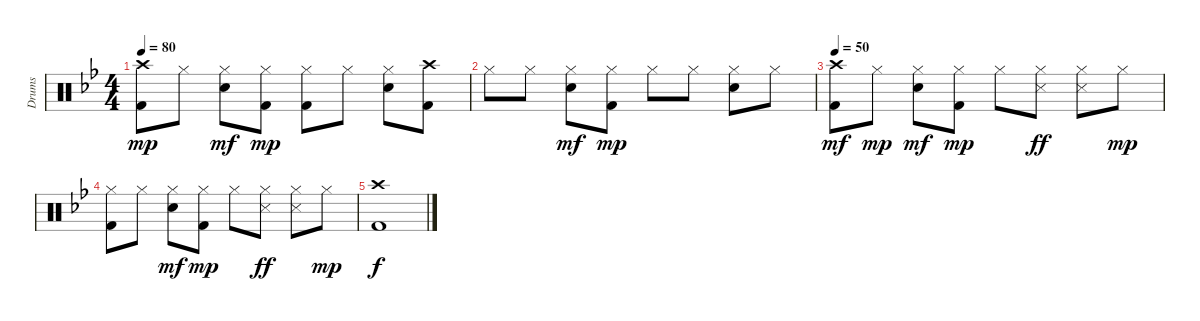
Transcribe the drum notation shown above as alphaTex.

\track ("Drums" "Drums") {instrument percussion}
\staff {score}
\articulation defaults
\ts (4 4)
\tempo 80
\clef neutral
\ks bb
("Crash high (hit)" "Kick (hit) 2").8{dy mp} "Hi-Hat (closed)".8 ("Hi-Hat (closed)" "Snare (hit) 2").8{dy mf} ("Hi-Hat (closed)" "Kick (hit) 2").8{dy mp} ("Hi-Hat (closed)" "Kick (hit) 2").8 "Hi-Hat (closed)".8 ("Hi-Hat (closed)" "Snare (hit) 2").8 ("Crash high (hit)" "Kick (hit) 2").8 |
"Hi-Hat (closed)".8 "Hi-Hat (closed)".8 ("Hi-Hat (closed)" "Snare (hit) 2").8{dy mf} ("Hi-Hat (closed)" "Kick (hit) 2").8{dy mp} "Hi-Hat (closed)".8 "Hi-Hat (closed)".8 ("Hi-Hat (closed)" "Snare (hit) 2").8 "Hi-Hat (closed)".8 |
\tempo 50
("Crash high (hit)" "Kick (hit) 2").8{dy mf} "Hi-Hat (closed)".8{dy mp} ("Hi-Hat (closed)" "Snare (hit) 2").8{dy mf} ("Hi-Hat (closed)" "Kick (hit) 2").8{dy mp} "Hi-Hat (closed)".8 ("Hi-Hat (closed)" "Snare (side stick) 3").8{dy ff} ("Hi-Hat (closed)" "Snare (side stick) 3").8 "Hi-Hat (closed)".8{dy mp} |
("Hi-Hat (closed)" "Kick (hit) 2").8 "Hi-Hat (closed)".8 ("Hi-Hat (closed)" "Snare (hit) 2").8{dy mf} ("Hi-Hat (closed)" "Kick (hit) 2").8{dy mp} "Hi-Hat (closed)".8 ("Hi-Hat (closed)" "Snare (side stick) 3").8{dy ff} ("Hi-Hat (closed)" "Snare (side stick) 3").8 "Hi-Hat (closed)".8{dy mp} |
("Crash high (hit)" "Kick (hit) 2").1{dy f}
